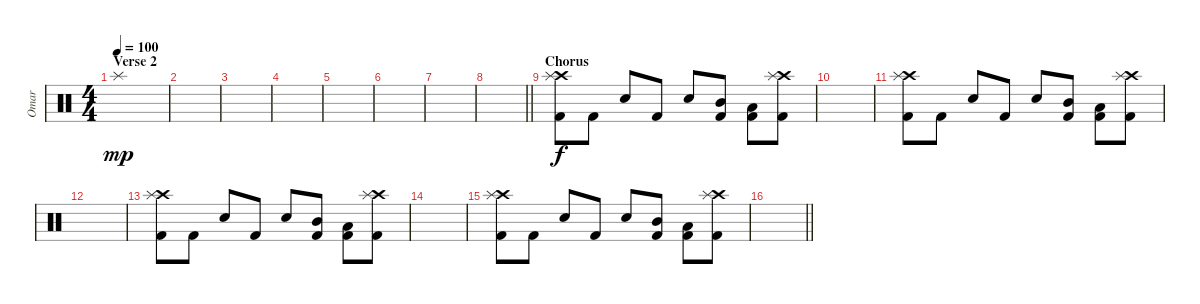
\track ("Omar" "Omar") {instrument percussion}
\staff {score}
\articulation defaults
\ts (4 4)
\section ("" "Verse 2")
\tempo 100
\clef neutral
\ks c "Splash (hit)".1{dy mp}
|
|
|
|
|
|
|
\barLineRight lightlight
|
\section ("" "Chorus")
("Crash high (hit)" "Splash (hit)" "Kick (hit) 2").8{dy f} "Kick (hit) 2".8 "Snare (hit) 2".8 "Kick (hit) 2".8 "Snare (hit) 2".8 ("Mid Tom (hit)" "Kick (hit) 2").8 ("Low Tom (hit)" "Kick (hit) 2").8 ("Crash high (hit)" "Splash (hit)" "Kick (hit) 2").8 |
|
("Crash high (hit)" "Splash (hit)" "Kick (hit) 2").8 "Kick (hit) 2".8 "Snare (hit) 2".8 "Kick (hit) 2".8 "Snare (hit) 2".8 ("Mid Tom (hit)" "Kick (hit) 2").8 ("Low Tom (hit)" "Kick (hit) 2").8 ("Crash high (hit)" "Splash (hit)" "Kick (hit) 2").8 |
|
("Crash high (hit)" "Splash (hit)" "Kick (hit) 2").8 "Kick (hit) 2".8 "Snare (hit) 2".8 "Kick (hit) 2".8 "Snare (hit) 2".8 ("Mid Tom (hit)" "Kick (hit) 2").8 ("Low Tom (hit)" "Kick (hit) 2").8 ("Crash high (hit)" "Splash (hit)" "Kick (hit) 2").8 |
|
("Crash high (hit)" "Splash (hit)" "Kick (hit) 2").8 "Kick (hit) 2".8 "Snare (hit) 2".8 "Kick (hit) 2".8 "Snare (hit) 2".8 ("Mid Tom (hit)" "Kick (hit) 2").8 ("Low Tom (hit)" "Kick (hit) 2").8 ("Crash high (hit)" "Splash (hit)" "Kick (hit) 2").8 |
\barLineRight lightlight
